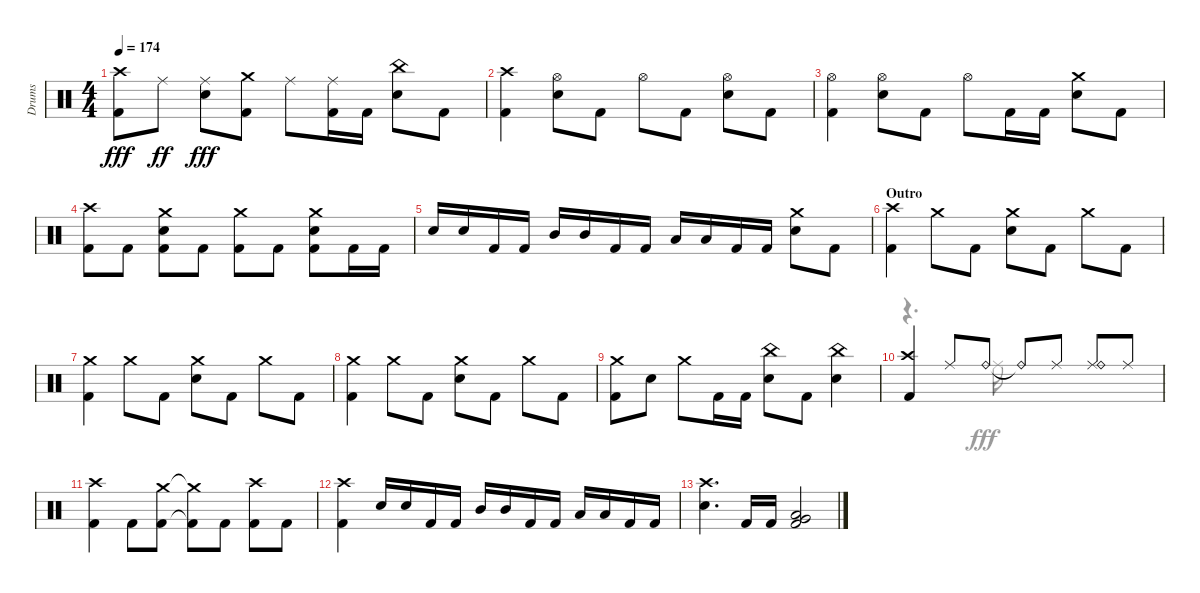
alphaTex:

\track ("Drums" "Drums") {instrument percussion}
\staff {score}
\articulation defaults
\voice
\ts (4 4)
\tempo 174
\clef neutral
\ks aminor
("Kick (hit) 2" "Crash high (hit)").8{dy fff} "Ride (middle)".8{dy ff} ("Snare (hit) 2" "Ride (middle)").8{dy fff} ("Kick (hit) 2" "Crash medium (hit)").8 "Ride (middle)".8 ("Kick (hit) 2" "Ride (middle)").16 "Kick (hit) 2".16 ("Snare (hit) 2" "China (hit)").8 "Kick (hit) 2".8 |
("Kick (hit) 2" "Crash high (hit)").4 ("Snare (hit) 2" "Hi-Hat (open)").8 "Kick (hit) 2".8 "Hi-Hat (open)".8 "Kick (hit) 2".8 ("Snare (hit) 2" "Hi-Hat (open)").8 "Kick (hit) 2".8 |
("Kick (hit) 2" "Hi-Hat (open)").4 ("Snare (hit) 2" "Hi-Hat (open)").8 "Kick (hit) 2".8 "Hi-Hat (open)".8 "Kick (hit) 2".16 "Kick (hit) 2".16 ("Snare (hit) 2" "Crash medium (hit)").8 "Kick (hit) 2".8 |
("Kick (hit) 2" "Crash high (hit)").8 "Kick (hit) 2".8 ("Kick (hit) 2" "Snare (hit) 2" "Crash medium (hit)").8 "Kick (hit) 2".8 ("Kick (hit) 2" "Crash medium (hit)").8 "Kick (hit) 2".8 ("Kick (hit) 2" "Snare (hit) 2" "Crash medium (hit)").8 "Kick (hit) 2".16 "Kick (hit) 2".16 |
"Snare (hit) 2".16 "Snare (hit) 2".16 "Kick (hit) 2".16 "Kick (hit) 2".16 "Mid Tom (hit)".16 "Mid Tom (hit)".16 "Kick (hit) 2".16 "Kick (hit) 2".16 "Low Tom (hit)".16 "Low Tom (hit)".16 "Kick (hit) 2".16 "Kick (hit) 2".16 ("Snare (hit) 2" "Crash medium (hit)").8 "Kick (hit) 2".8 |
\section ("" "Outro")
("Kick (hit) 2" "Crash high (hit)").4 "Crash medium (hit)".8 "Kick (hit) 2".8 ("Snare (hit) 2" "Crash medium (hit)").8 "Kick (hit) 2".8 "Crash medium (hit)".8 "Kick (hit) 2".8 |
("Kick (hit) 2" "Crash medium (hit)").4 "Crash medium (hit)".8 "Kick (hit) 2".8 ("Snare (hit) 2" "Crash medium (hit)").8 "Kick (hit) 2".8 "Crash medium (hit)".8 "Kick (hit) 2".8 |
("Kick (hit) 2" "Crash medium (hit)").4 "Crash medium (hit)".8 "Kick (hit) 2".8 ("Snare (hit) 2" "Crash medium (hit)").8 "Kick (hit) 2".8 "Crash medium (hit)".8 "Kick (hit) 2".8 |
("Kick (hit) 2" "Crash medium (hit)").8 "Snare (hit) 2".8 "Crash medium (hit)".8 "Kick (hit) 2".16 "Kick (hit) 2".16 ("Snare (hit) 2" "China (hit)").8 "Kick (hit) 2".8 ("Snare (hit) 2" "China (hit)").4 |
("Kick (hit) 2" "Crash high (hit)").4 "Ride (middle)".8 "Ride (bell)".8 "Ride (bell)"{t}.8 "Ride (middle)".8 ("Ride (middle)" "Ride (bell)").8 "Ride (middle)".8 |
("Kick (hit) 2" "Crash high (hit)").4 "Kick (hit) 2".8 ("Kick (hit) 2" "Crash medium (hit)").8 ("Kick (hit) 2"{t} "Crash medium (hit)"{t}).8 "Kick (hit) 2".8 ("Kick (hit) 2" "Crash high (hit)").8 "Kick (hit) 2".8 |
("Kick (hit) 2" "Crash high (hit)").4 "Snare (hit) 2".16 "Snare (hit) 2".16 "Kick (hit) 2".16 "Kick (hit) 2".16 "Mid Tom (hit)".16 "Mid Tom (hit)".16 "Kick (hit) 2".16 "Kick (hit) 2".16 "Low Tom (hit)".16 "Low Tom (hit)".16 "Kick (hit) 2".16 "Kick (hit) 2".16 |
("Snare (hit) 2" "Crash high (hit)").4{d} "Kick (hit) 2".16 "Kick (hit) 2".16 ("Kick (hit) 2" "Low Floor Tom (hit)" "Very Low Tom (hit)").2 |
|
\voice
\clef neutral
\ottava regular
\simile none
\ks aminor
|
|
|
|
|
|
|
|
|
r.4{d} "Ride (middle)".16 |
|
|
|
|
